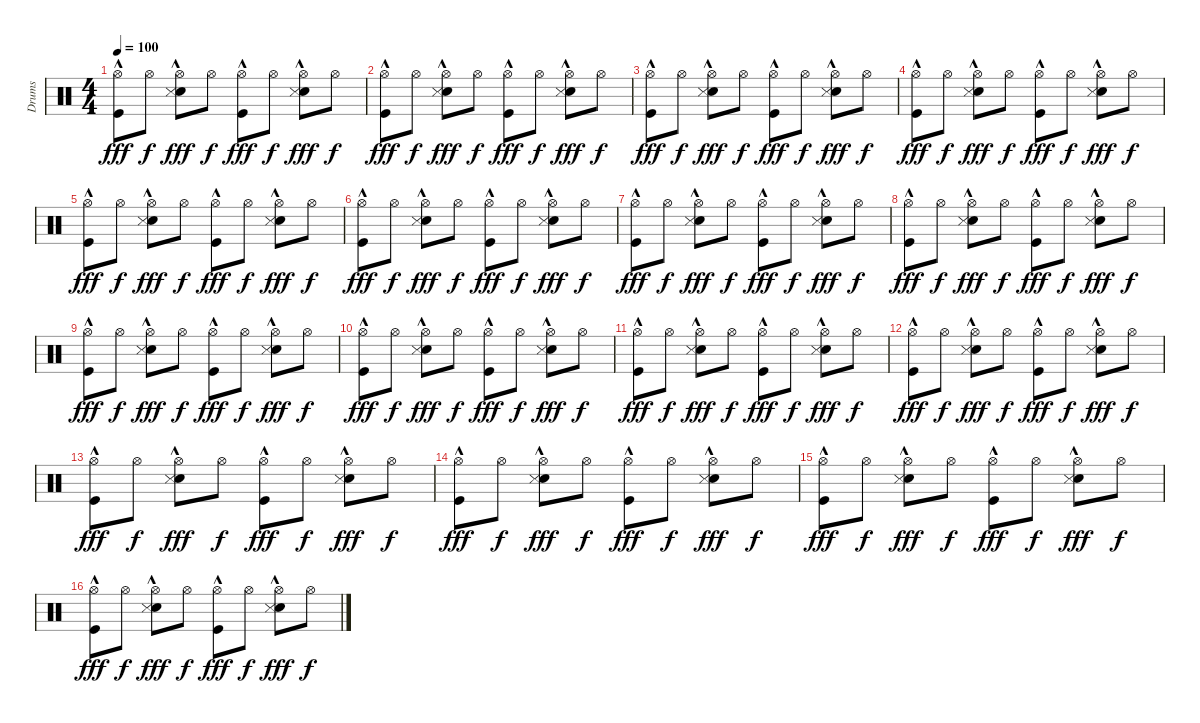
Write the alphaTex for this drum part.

\track ("Drums" "Drums") {instrument percussion}
\staff {score}
\articulation defaults
\ts (4 4)
\tempo 100
\clef neutral
\ks c
("Hi-Hat (open)" "Kick (hit)"{hac}).8{dy fff} "Hi-Hat (open)".8{dy f} ("Hi-Hat (open)" "Snare (hit) 2"{hac} "Metronome (hit)").8{dy fff} "Hi-Hat (open)".8{dy f} ("Hi-Hat (open)" "Kick (hit)"{hac}).8{dy fff} "Hi-Hat (open)".8{dy f} ("Hi-Hat (open)" "Snare (hit) 2"{hac} "Metronome (hit)").8{dy fff} "Hi-Hat (open)".8{dy f} |
("Hi-Hat (open)" "Kick (hit)"{hac}).8{dy fff} "Hi-Hat (open)".8{dy f} ("Hi-Hat (open)" "Snare (hit) 2"{hac} "Metronome (hit)").8{dy fff} "Hi-Hat (open)".8{dy f} ("Hi-Hat (open)" "Kick (hit)"{hac}).8{dy fff} "Hi-Hat (open)".8{dy f} ("Hi-Hat (open)" "Snare (hit) 2"{hac} "Metronome (hit)").8{dy fff} "Hi-Hat (open)".8{dy f} |
("Hi-Hat (open)" "Kick (hit)"{hac}).8{dy fff} "Hi-Hat (open)".8{dy f} ("Hi-Hat (open)" "Snare (hit) 2"{hac} "Metronome (hit)").8{dy fff} "Hi-Hat (open)".8{dy f} ("Hi-Hat (open)" "Kick (hit)"{hac}).8{dy fff} "Hi-Hat (open)".8{dy f} ("Hi-Hat (open)" "Snare (hit) 2"{hac} "Metronome (hit)").8{dy fff} "Hi-Hat (open)".8{dy f} |
("Hi-Hat (open)" "Kick (hit)"{hac}).8{dy fff} "Hi-Hat (open)".8{dy f} ("Hi-Hat (open)" "Snare (hit) 2"{hac} "Metronome (hit)").8{dy fff} "Hi-Hat (open)".8{dy f} ("Hi-Hat (open)" "Kick (hit)"{hac}).8{dy fff} "Hi-Hat (open)".8{dy f} ("Hi-Hat (open)" "Snare (hit) 2"{hac} "Metronome (hit)").8{dy fff} "Hi-Hat (open)".8{dy f} |
("Hi-Hat (open)" "Kick (hit)"{hac}).8{dy fff} "Hi-Hat (open)".8{dy f} ("Hi-Hat (open)" "Snare (hit) 2"{hac} "Metronome (hit)").8{dy fff} "Hi-Hat (open)".8{dy f} ("Hi-Hat (open)" "Kick (hit)"{hac}).8{dy fff} "Hi-Hat (open)".8{dy f} ("Hi-Hat (open)" "Snare (hit) 2"{hac} "Metronome (hit)").8{dy fff} "Hi-Hat (open)".8{dy f} |
("Hi-Hat (open)" "Kick (hit)"{hac}).8{dy fff} "Hi-Hat (open)".8{dy f} ("Hi-Hat (open)" "Snare (hit) 2"{hac} "Metronome (hit)").8{dy fff} "Hi-Hat (open)".8{dy f} ("Hi-Hat (open)" "Kick (hit)"{hac}).8{dy fff} "Hi-Hat (open)".8{dy f} ("Hi-Hat (open)" "Snare (hit) 2"{hac} "Metronome (hit)").8{dy fff} "Hi-Hat (open)".8{dy f} |
("Hi-Hat (open)" "Kick (hit)"{hac}).8{dy fff} "Hi-Hat (open)".8{dy f} ("Hi-Hat (open)" "Snare (hit) 2"{hac} "Metronome (hit)").8{dy fff} "Hi-Hat (open)".8{dy f} ("Hi-Hat (open)" "Kick (hit)"{hac}).8{dy fff} "Hi-Hat (open)".8{dy f} ("Hi-Hat (open)" "Snare (hit) 2"{hac} "Metronome (hit)").8{dy fff} "Hi-Hat (open)".8{dy f} |
("Hi-Hat (open)" "Kick (hit)"{hac}).8{dy fff} "Hi-Hat (open)".8{dy f} ("Hi-Hat (open)" "Snare (hit) 2"{hac} "Metronome (hit)").8{dy fff} "Hi-Hat (open)".8{dy f} ("Hi-Hat (open)" "Kick (hit)"{hac}).8{dy fff} "Hi-Hat (open)".8{dy f} ("Hi-Hat (open)" "Snare (hit) 2"{hac} "Metronome (hit)").8{dy fff} "Hi-Hat (open)".8{dy f} |
("Hi-Hat (open)" "Kick (hit)"{hac}).8{dy fff} "Hi-Hat (open)".8{dy f} ("Hi-Hat (open)" "Snare (hit) 2"{hac} "Metronome (hit)").8{dy fff} "Hi-Hat (open)".8{dy f} ("Hi-Hat (open)" "Kick (hit)"{hac}).8{dy fff} "Hi-Hat (open)".8{dy f} ("Hi-Hat (open)" "Snare (hit) 2"{hac} "Metronome (hit)").8{dy fff} "Hi-Hat (open)".8{dy f} |
("Hi-Hat (open)" "Kick (hit)"{hac}).8{dy fff} "Hi-Hat (open)".8{dy f} ("Hi-Hat (open)" "Snare (hit) 2"{hac} "Metronome (hit)").8{dy fff} "Hi-Hat (open)".8{dy f} ("Hi-Hat (open)" "Kick (hit)"{hac}).8{dy fff} "Hi-Hat (open)".8{dy f} ("Hi-Hat (open)" "Snare (hit) 2"{hac} "Metronome (hit)").8{dy fff} "Hi-Hat (open)".8{dy f} |
("Hi-Hat (open)" "Kick (hit)"{hac}).8{dy fff} "Hi-Hat (open)".8{dy f} ("Hi-Hat (open)" "Snare (hit) 2"{hac} "Metronome (hit)").8{dy fff} "Hi-Hat (open)".8{dy f} ("Hi-Hat (open)" "Kick (hit)"{hac}).8{dy fff} "Hi-Hat (open)".8{dy f} ("Hi-Hat (open)" "Snare (hit) 2"{hac} "Metronome (hit)").8{dy fff} "Hi-Hat (open)".8{dy f} |
("Hi-Hat (open)" "Kick (hit)"{hac}).8{dy fff} "Hi-Hat (open)".8{dy f} ("Hi-Hat (open)" "Snare (hit) 2"{hac} "Metronome (hit)").8{dy fff} "Hi-Hat (open)".8{dy f} ("Hi-Hat (open)" "Kick (hit)"{hac}).8{dy fff} "Hi-Hat (open)".8{dy f} ("Hi-Hat (open)" "Snare (hit) 2"{hac} "Metronome (hit)").8{dy fff} "Hi-Hat (open)".8{dy f} |
("Hi-Hat (open)" "Kick (hit)"{hac}).8{dy fff} "Hi-Hat (open)".8{dy f} ("Hi-Hat (open)" "Snare (hit) 2"{hac} "Metronome (hit)").8{dy fff} "Hi-Hat (open)".8{dy f} ("Hi-Hat (open)" "Kick (hit)"{hac}).8{dy fff} "Hi-Hat (open)".8{dy f} ("Hi-Hat (open)" "Snare (hit) 2"{hac} "Metronome (hit)").8{dy fff} "Hi-Hat (open)".8{dy f} |
("Hi-Hat (open)" "Kick (hit)"{hac}).8{dy fff} "Hi-Hat (open)".8{dy f} ("Hi-Hat (open)" "Snare (hit) 2"{hac} "Metronome (hit)").8{dy fff} "Hi-Hat (open)".8{dy f} ("Hi-Hat (open)" "Kick (hit)"{hac}).8{dy fff} "Hi-Hat (open)".8{dy f} ("Hi-Hat (open)" "Snare (hit) 2"{hac} "Metronome (hit)").8{dy fff} "Hi-Hat (open)".8{dy f} |
("Hi-Hat (open)" "Kick (hit)"{hac}).8{dy fff} "Hi-Hat (open)".8{dy f} ("Hi-Hat (open)" "Snare (hit) 2"{hac} "Metronome (hit)").8{dy fff} "Hi-Hat (open)".8{dy f} ("Hi-Hat (open)" "Kick (hit)"{hac}).8{dy fff} "Hi-Hat (open)".8{dy f} ("Hi-Hat (open)" "Snare (hit) 2"{hac} "Metronome (hit)").8{dy fff} "Hi-Hat (open)".8{dy f} |
("Hi-Hat (open)" "Kick (hit)"{hac}).8{dy fff} "Hi-Hat (open)".8{dy f} ("Hi-Hat (open)" "Snare (hit) 2"{hac} "Metronome (hit)").8{dy fff} "Hi-Hat (open)".8{dy f} ("Hi-Hat (open)" "Kick (hit)"{hac}).8{dy fff} "Hi-Hat (open)".8{dy f} ("Hi-Hat (open)" "Snare (hit) 2"{hac} "Metronome (hit)").8{dy fff} "Hi-Hat (open)".8{dy f}
